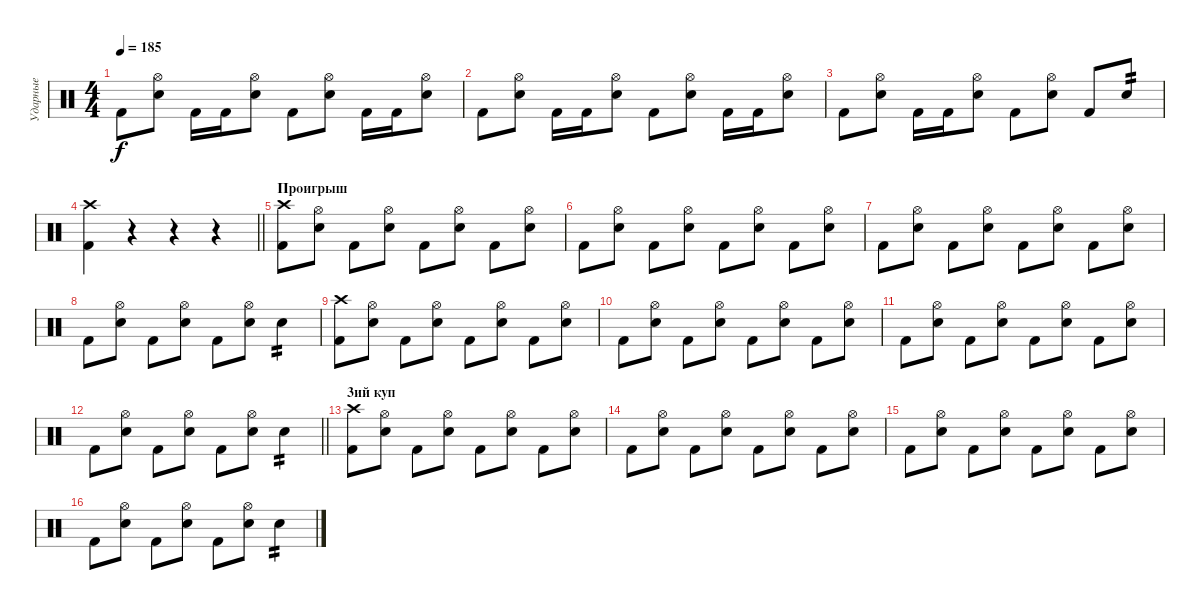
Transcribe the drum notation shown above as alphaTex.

\track ("Ударные" "Ударные") {instrument percussion}
\staff {score}
\articulation defaults
\ts (4 4)
\tempo 185
\clef neutral
\ks c "Kick (hit) 2".8{dy f}
("Hi-Hat (open)" "Electric Snare (hit)").8 "Kick (hit) 2".16 "Kick (hit) 2".16 ("Hi-Hat (open)" "Electric Snare (hit)").8 "Kick (hit) 2".8 ("Hi-Hat (open)" "Electric Snare (hit)").8 "Kick (hit) 2".16 "Kick (hit) 2".16 ("Hi-Hat (open)" "Electric Snare (hit)").8 |
"Kick (hit) 2".8 ("Hi-Hat (open)" "Electric Snare (hit)").8 "Kick (hit) 2".16 "Kick (hit) 2".16 ("Hi-Hat (open)" "Electric Snare (hit)").8 "Kick (hit) 2".8 ("Hi-Hat (open)" "Electric Snare (hit)").8 "Kick (hit) 2".16 "Kick (hit) 2".16 ("Hi-Hat (open)" "Electric Snare (hit)").8 |
"Kick (hit) 2".8 ("Hi-Hat (open)" "Electric Snare (hit)").8 "Kick (hit) 2".16 "Kick (hit) 2".16 ("Hi-Hat (open)" "Electric Snare (hit)").8 "Kick (hit) 2".8 ("Hi-Hat (open)" "Electric Snare (hit)").8 "Kick (hit) 2".8 "Electric Snare (hit)".8{tp 2} |
\barLineRight lightlight
("Crash high (hit)" "Kick (hit) 2").4 r.4 r.4 r.4 |
\section ("" "Проигрыш")
("Crash high (hit)" "Kick (hit) 2").8 ("Hi-Hat (open)" "Electric Snare (hit)").8 "Kick (hit) 2".8 ("Hi-Hat (open)" "Electric Snare (hit)").8 "Kick (hit) 2".8 ("Hi-Hat (open)" "Electric Snare (hit)").8 "Kick (hit) 2".8 ("Hi-Hat (open)" "Electric Snare (hit)").8 |
"Kick (hit) 2".8 ("Hi-Hat (open)" "Electric Snare (hit)").8 "Kick (hit) 2".8 ("Hi-Hat (open)" "Electric Snare (hit)").8 "Kick (hit) 2".8 ("Hi-Hat (open)" "Electric Snare (hit)").8 "Kick (hit) 2".8 ("Hi-Hat (open)" "Electric Snare (hit)").8 |
"Kick (hit) 2".8 ("Hi-Hat (open)" "Electric Snare (hit)").8 "Kick (hit) 2".8 ("Hi-Hat (open)" "Electric Snare (hit)").8 "Kick (hit) 2".8 ("Hi-Hat (open)" "Electric Snare (hit)").8 "Kick (hit) 2".8 ("Hi-Hat (open)" "Electric Snare (hit)").8 |
"Kick (hit) 2".8 ("Hi-Hat (open)" "Electric Snare (hit)").8 "Kick (hit) 2".8 ("Hi-Hat (open)" "Electric Snare (hit)").8 "Kick (hit) 2".8 ("Hi-Hat (open)" "Electric Snare (hit)").8 "Electric Snare (hit)".4{tp 2} |
("Crash high (hit)" "Kick (hit) 2").8 ("Hi-Hat (open)" "Electric Snare (hit)").8 "Kick (hit) 2".8 ("Hi-Hat (open)" "Electric Snare (hit)").8 "Kick (hit) 2".8 ("Hi-Hat (open)" "Electric Snare (hit)").8 "Kick (hit) 2".8 ("Hi-Hat (open)" "Electric Snare (hit)").8 |
"Kick (hit) 2".8 ("Hi-Hat (open)" "Electric Snare (hit)").8 "Kick (hit) 2".8 ("Hi-Hat (open)" "Electric Snare (hit)").8 "Kick (hit) 2".8 ("Hi-Hat (open)" "Electric Snare (hit)").8 "Kick (hit) 2".8 ("Hi-Hat (open)" "Electric Snare (hit)").8 |
"Kick (hit) 2".8 ("Hi-Hat (open)" "Electric Snare (hit)").8 "Kick (hit) 2".8 ("Hi-Hat (open)" "Electric Snare (hit)").8 "Kick (hit) 2".8 ("Hi-Hat (open)" "Electric Snare (hit)").8 "Kick (hit) 2".8 ("Hi-Hat (open)" "Electric Snare (hit)").8 |
\barLineRight lightlight "Kick (hit) 2".8
("Hi-Hat (open)" "Electric Snare (hit)").8 "Kick (hit) 2".8 ("Hi-Hat (open)" "Electric Snare (hit)").8 "Kick (hit) 2".8 ("Hi-Hat (open)" "Electric Snare (hit)").8 "Electric Snare (hit)".4{tp 2} |
\section ("" "3ий куп")
("Crash high (hit)" "Kick (hit) 2").8 ("Hi-Hat (open)" "Electric Snare (hit)").8 "Kick (hit) 2".8 ("Hi-Hat (open)" "Electric Snare (hit)").8 "Kick (hit) 2".8 ("Hi-Hat (open)" "Electric Snare (hit)").8 "Kick (hit) 2".8 ("Hi-Hat (open)" "Electric Snare (hit)").8 |
"Kick (hit) 2".8 ("Hi-Hat (open)" "Electric Snare (hit)").8 "Kick (hit) 2".8 ("Hi-Hat (open)" "Electric Snare (hit)").8 "Kick (hit) 2".8 ("Hi-Hat (open)" "Electric Snare (hit)").8 "Kick (hit) 2".8 ("Hi-Hat (open)" "Electric Snare (hit)").8 |
"Kick (hit) 2".8 ("Hi-Hat (open)" "Electric Snare (hit)").8 "Kick (hit) 2".8 ("Hi-Hat (open)" "Electric Snare (hit)").8 "Kick (hit) 2".8 ("Hi-Hat (open)" "Electric Snare (hit)").8 "Kick (hit) 2".8 ("Hi-Hat (open)" "Electric Snare (hit)").8 |
"Kick (hit) 2".8 ("Hi-Hat (open)" "Electric Snare (hit)").8 "Kick (hit) 2".8 ("Hi-Hat (open)" "Electric Snare (hit)").8 "Kick (hit) 2".8 ("Hi-Hat (open)" "Electric Snare (hit)").8 "Electric Snare (hit)".4{tp 2}
